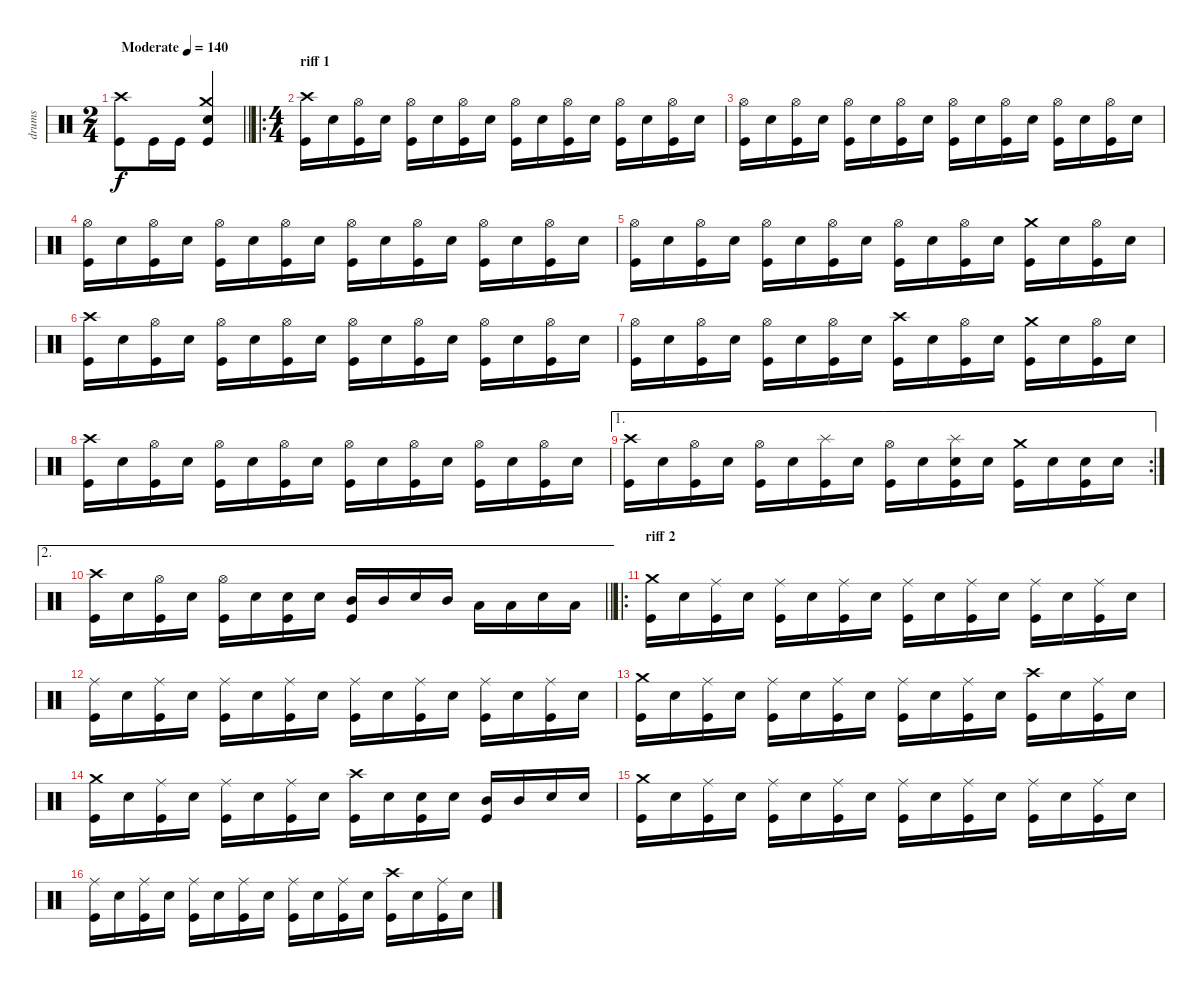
\track ("drums" "drums") {instrument percussion}
\staff {score}
\articulation defaults
\ts (2 4)
\tempo (140 "Moderate")
\clef neutral
\barLineRight lightlight
\ks c
("Crash high (hit)" "Kick (hit)").8{dy f} "Kick (hit)".16 "Kick (hit)".16 ("Crash medium (hit)" "Snare (hit) 2" "Kick (hit)").4 |
\ro
\ts (4 4)
\section ("" "riff 1")
("Crash high (hit)" "Kick (hit)").16 "Snare (hit) 2".16 ("Hi-Hat (open)" "Kick (hit)").16 "Snare (hit) 2".16 ("Hi-Hat (open)" "Kick (hit)").16 "Snare (hit) 2".16 ("Hi-Hat (open)" "Kick (hit)").16 "Snare (hit) 2".16 ("Hi-Hat (open)" "Kick (hit)").16 "Snare (hit) 2".16 ("Hi-Hat (open)" "Kick (hit)").16 "Snare (hit) 2".16 ("Hi-Hat (open)" "Kick (hit)").16 "Snare (hit) 2".16 ("Hi-Hat (open)" "Kick (hit)").16 "Snare (hit) 2".16 |
("Hi-Hat (open)" "Kick (hit)").16 "Snare (hit) 2".16 ("Hi-Hat (open)" "Kick (hit)").16 "Snare (hit) 2".16 ("Hi-Hat (open)" "Kick (hit)").16 "Snare (hit) 2".16 ("Hi-Hat (open)" "Kick (hit)").16 "Snare (hit) 2".16 ("Hi-Hat (open)" "Kick (hit)").16 "Snare (hit) 2".16 ("Hi-Hat (open)" "Kick (hit)").16 "Snare (hit) 2".16 ("Hi-Hat (open)" "Kick (hit)").16 "Snare (hit) 2".16 ("Hi-Hat (open)" "Kick (hit)").16 "Snare (hit) 2".16 |
("Hi-Hat (open)" "Kick (hit)").16 "Snare (hit) 2".16 ("Hi-Hat (open)" "Kick (hit)").16 "Snare (hit) 2".16 ("Hi-Hat (open)" "Kick (hit)").16 "Snare (hit) 2".16 ("Hi-Hat (open)" "Kick (hit)").16 "Snare (hit) 2".16 ("Hi-Hat (open)" "Kick (hit)").16 "Snare (hit) 2".16 ("Hi-Hat (open)" "Kick (hit)").16 "Snare (hit) 2".16 ("Hi-Hat (open)" "Kick (hit)").16 "Snare (hit) 2".16 ("Hi-Hat (open)" "Kick (hit)").16 "Snare (hit) 2".16 |
("Hi-Hat (open)" "Kick (hit)").16 "Snare (hit) 2".16 ("Hi-Hat (open)" "Kick (hit)").16 "Snare (hit) 2".16 ("Hi-Hat (open)" "Kick (hit)").16 "Snare (hit) 2".16 ("Hi-Hat (open)" "Kick (hit)").16 "Snare (hit) 2".16 ("Hi-Hat (open)" "Kick (hit)").16 "Snare (hit) 2".16 ("Hi-Hat (open)" "Kick (hit)").16 "Snare (hit) 2".16 ("Crash medium (hit)" "Kick (hit)").16 "Snare (hit) 2".16 ("Hi-Hat (open)" "Kick (hit)").16 "Snare (hit) 2".16 |
("Crash high (hit)" "Kick (hit)").16 "Snare (hit) 2".16 ("Hi-Hat (open)" "Kick (hit)").16 "Snare (hit) 2".16 ("Hi-Hat (open)" "Kick (hit)").16 "Snare (hit) 2".16 ("Hi-Hat (open)" "Kick (hit)").16 "Snare (hit) 2".16 ("Hi-Hat (open)" "Kick (hit)").16 "Snare (hit) 2".16 ("Hi-Hat (open)" "Kick (hit)").16 "Snare (hit) 2".16 ("Hi-Hat (open)" "Kick (hit)").16 "Snare (hit) 2".16 ("Hi-Hat (open)" "Kick (hit)").16 "Snare (hit) 2".16 |
("Hi-Hat (open)" "Kick (hit)").16 "Snare (hit) 2".16 ("Hi-Hat (open)" "Kick (hit)").16 "Snare (hit) 2".16 ("Hi-Hat (open)" "Kick (hit)").16 "Snare (hit) 2".16 ("Hi-Hat (open)" "Kick (hit)").16 "Snare (hit) 2".16 ("Crash high (hit)" "Kick (hit)").16 "Snare (hit) 2".16 ("Hi-Hat (open)" "Kick (hit)").16 "Snare (hit) 2".16 ("Crash medium (hit)" "Kick (hit)").16 "Snare (hit) 2".16 ("Hi-Hat (open)" "Kick (hit)").16 "Snare (hit) 2".16 |
("Crash high (hit)" "Kick (hit)").16 "Snare (hit) 2".16 ("Hi-Hat (open)" "Kick (hit)").16 "Snare (hit) 2".16 ("Hi-Hat (open)" "Kick (hit)").16 "Snare (hit) 2".16 ("Hi-Hat (open)" "Kick (hit)").16 "Snare (hit) 2".16 ("Hi-Hat (open)" "Kick (hit)").16 "Snare (hit) 2".16 ("Hi-Hat (open)" "Kick (hit)").16 "Snare (hit) 2".16 ("Hi-Hat (open)" "Kick (hit)").16 "Snare (hit) 2".16 ("Hi-Hat (open)" "Kick (hit)").16 "Snare (hit) 2".16 |
\ae 1
\rc 2
("Crash high (hit)" "Kick (hit)").16 "Snare (hit) 2".16 ("Hi-Hat (open)" "Kick (hit)").16 "Snare (hit) 2".16 ("Hi-Hat (open)" "Kick (hit)").16 "Snare (hit) 2".16 ("Splash (hit)" "Kick (hit)").16 "Snare (hit) 2".16 ("Hi-Hat (open)" "Kick (hit)").16 "Snare (hit) 2".16 ("Splash (hit)" "Snare (hit) 2" "Kick (hit)").16 "Snare (hit) 2".16 ("Crash medium (hit)" "Kick (hit)").16 "Snare (hit) 2".16 ("Snare (hit) 2" "Kick (hit)").16 "Snare (hit) 2".16 |
\ae 2
\barLineRight lightlight
("Crash high (hit)" "Kick (hit)").16 "Snare (hit) 2".16 ("Hi-Hat (open)" "Kick (hit)").16 "Snare (hit) 2".16 ("Hi-Hat (open)" "Kick (hit)").16 "Snare (hit) 2".16 ("Snare (hit) 2" "Kick (hit)").16 "Snare (hit) 2".16 ("Mid Tom (hit)" "Kick (hit)").16 "Mid Tom (hit)".16 "Snare (hit) 2".16 "Mid Tom (hit)".16 "Low Tom (hit)".16 "Low Tom (hit)".16 "Snare (hit) 2".16 "Low Tom (hit)".16 |
\ro
\section ("" "riff 2")
("Crash medium (hit)" "Kick (hit)").16 "Snare (hit) 2".16 ("Ride (middle)" "Kick (hit)").16 "Snare (hit) 2".16 ("Ride (middle)" "Kick (hit)").16 "Snare (hit) 2".16 ("Ride (middle)" "Kick (hit)").16 "Snare (hit) 2".16 ("Ride (middle)" "Kick (hit)").16 "Snare (hit) 2".16 ("Ride (middle)" "Kick (hit)").16 "Snare (hit) 2".16 ("Ride (middle)" "Kick (hit)").16 "Snare (hit) 2".16 ("Ride (middle)" "Kick (hit)").16 "Snare (hit) 2".16 |
("Ride (middle)" "Kick (hit)").16 "Snare (hit) 2".16 ("Ride (middle)" "Kick (hit)").16 "Snare (hit) 2".16 ("Ride (middle)" "Kick (hit)").16 "Snare (hit) 2".16 ("Ride (middle)" "Kick (hit)").16 "Snare (hit) 2".16 ("Ride (middle)" "Kick (hit)").16 "Snare (hit) 2".16 ("Ride (middle)" "Kick (hit)").16 "Snare (hit) 2".16 ("Ride (middle)" "Kick (hit)").16 "Snare (hit) 2".16 ("Ride (middle)" "Kick (hit)").16 "Snare (hit) 2".16 |
("Crash medium (hit)" "Kick (hit)").16 "Snare (hit) 2".16 ("Ride (middle)" "Kick (hit)").16 "Snare (hit) 2".16 ("Ride (middle)" "Kick (hit)").16 "Snare (hit) 2".16 ("Ride (middle)" "Kick (hit)").16 "Snare (hit) 2".16 ("Ride (middle)" "Kick (hit)").16 "Snare (hit) 2".16 ("Ride (middle)" "Kick (hit)").16 "Snare (hit) 2".16 ("Crash high (hit)" "Kick (hit)").16 "Snare (hit) 2".16 ("Ride (middle)" "Kick (hit)").16 "Snare (hit) 2".16 |
("Crash medium (hit)" "Kick (hit)").16 "Snare (hit) 2".16 ("Ride (middle)" "Kick (hit)").16 "Snare (hit) 2".16 ("Ride (middle)" "Kick (hit)").16 "Snare (hit) 2".16 ("Ride (middle)" "Kick (hit)").16 "Snare (hit) 2".16 ("Crash high (hit)" "Kick (hit)").16 "Snare (hit) 2".16 ("Snare (hit) 2" "Kick (hit)").16 "Snare (hit) 2".16 ("Mid Tom (hit)" "Kick (hit)").16 "Mid Tom (hit)".16 "Snare (hit) 2".16 "Snare (hit) 2".16 |
("Crash medium (hit)" "Kick (hit)").16 "Snare (hit) 2".16 ("Ride (middle)" "Kick (hit)").16 "Snare (hit) 2".16 ("Ride (middle)" "Kick (hit)").16 "Snare (hit) 2".16 ("Ride (middle)" "Kick (hit)").16 "Snare (hit) 2".16 ("Ride (middle)" "Kick (hit)").16 "Snare (hit) 2".16 ("Ride (middle)" "Kick (hit)").16 "Snare (hit) 2".16 ("Ride (middle)" "Kick (hit)").16 "Snare (hit) 2".16 ("Ride (middle)" "Kick (hit)").16 "Snare (hit) 2".16 |
("Ride (middle)" "Kick (hit)").16 "Snare (hit) 2".16 ("Ride (middle)" "Kick (hit)").16 "Snare (hit) 2".16 ("Ride (middle)" "Kick (hit)").16 "Snare (hit) 2".16 ("Ride (middle)" "Kick (hit)").16 "Snare (hit) 2".16 ("Ride (middle)" "Kick (hit)").16 "Snare (hit) 2".16 ("Ride (middle)" "Kick (hit)").16 "Snare (hit) 2".16 ("Crash high (hit)" "Kick (hit)").16 "Snare (hit) 2".16 ("Ride (middle)" "Kick (hit)").16 "Snare (hit) 2".16
